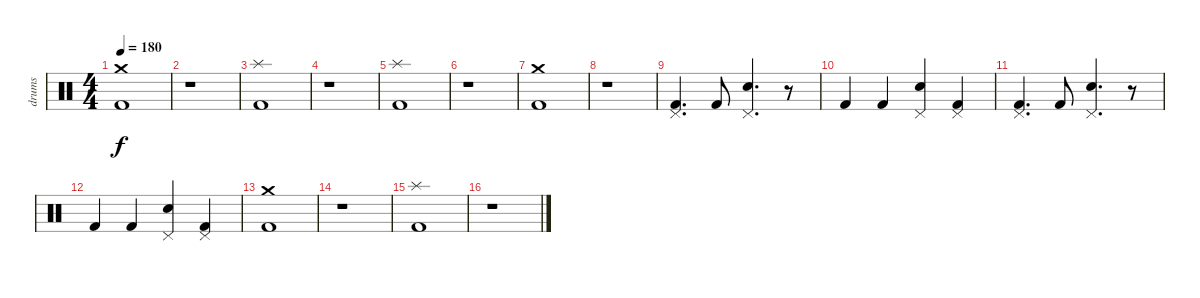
\track ("drums" "drums") {instrument percussion}
\staff {score}
\articulation defaults
\ts (4 4)
\tempo 180
\clef neutral
\ks c
("Crash medium (hit)" "Kick (hit) 2").1{dy f} |
r.1 |
("Splash (hit)" "Kick (hit) 2").1 |
r.1 |
("Splash (hit)" "Kick (hit) 2").1 |
r.1 |
("Crash medium (hit)" "Kick (hit) 2").1 |
r.1 |
("Pedal Hi-Hat (hit)" "Kick (hit) 2").4{d} "Kick (hit) 2".8 ("Pedal Hi-Hat (hit)" "Electric Snare (hit)").4{d} r.8 |
"Kick (hit) 2".4 "Kick (hit) 2".4 ("Pedal Hi-Hat (hit)" "Electric Snare (hit)").4 ("Pedal Hi-Hat (hit)" "Kick (hit) 2").4 |
("Pedal Hi-Hat (hit)" "Kick (hit) 2").4{d} "Kick (hit) 2".8 ("Pedal Hi-Hat (hit)" "Electric Snare (hit)").4{d} r.8 |
"Kick (hit) 2".4 "Kick (hit) 2".4 ("Pedal Hi-Hat (hit)" "Electric Snare (hit)").4 ("Pedal Hi-Hat (hit)" "Kick (hit) 2").4 |
("Crash medium (hit)" "Kick (hit) 2").1 |
r.1 |
("Splash (hit)" "Kick (hit) 2").1 |
r.1
